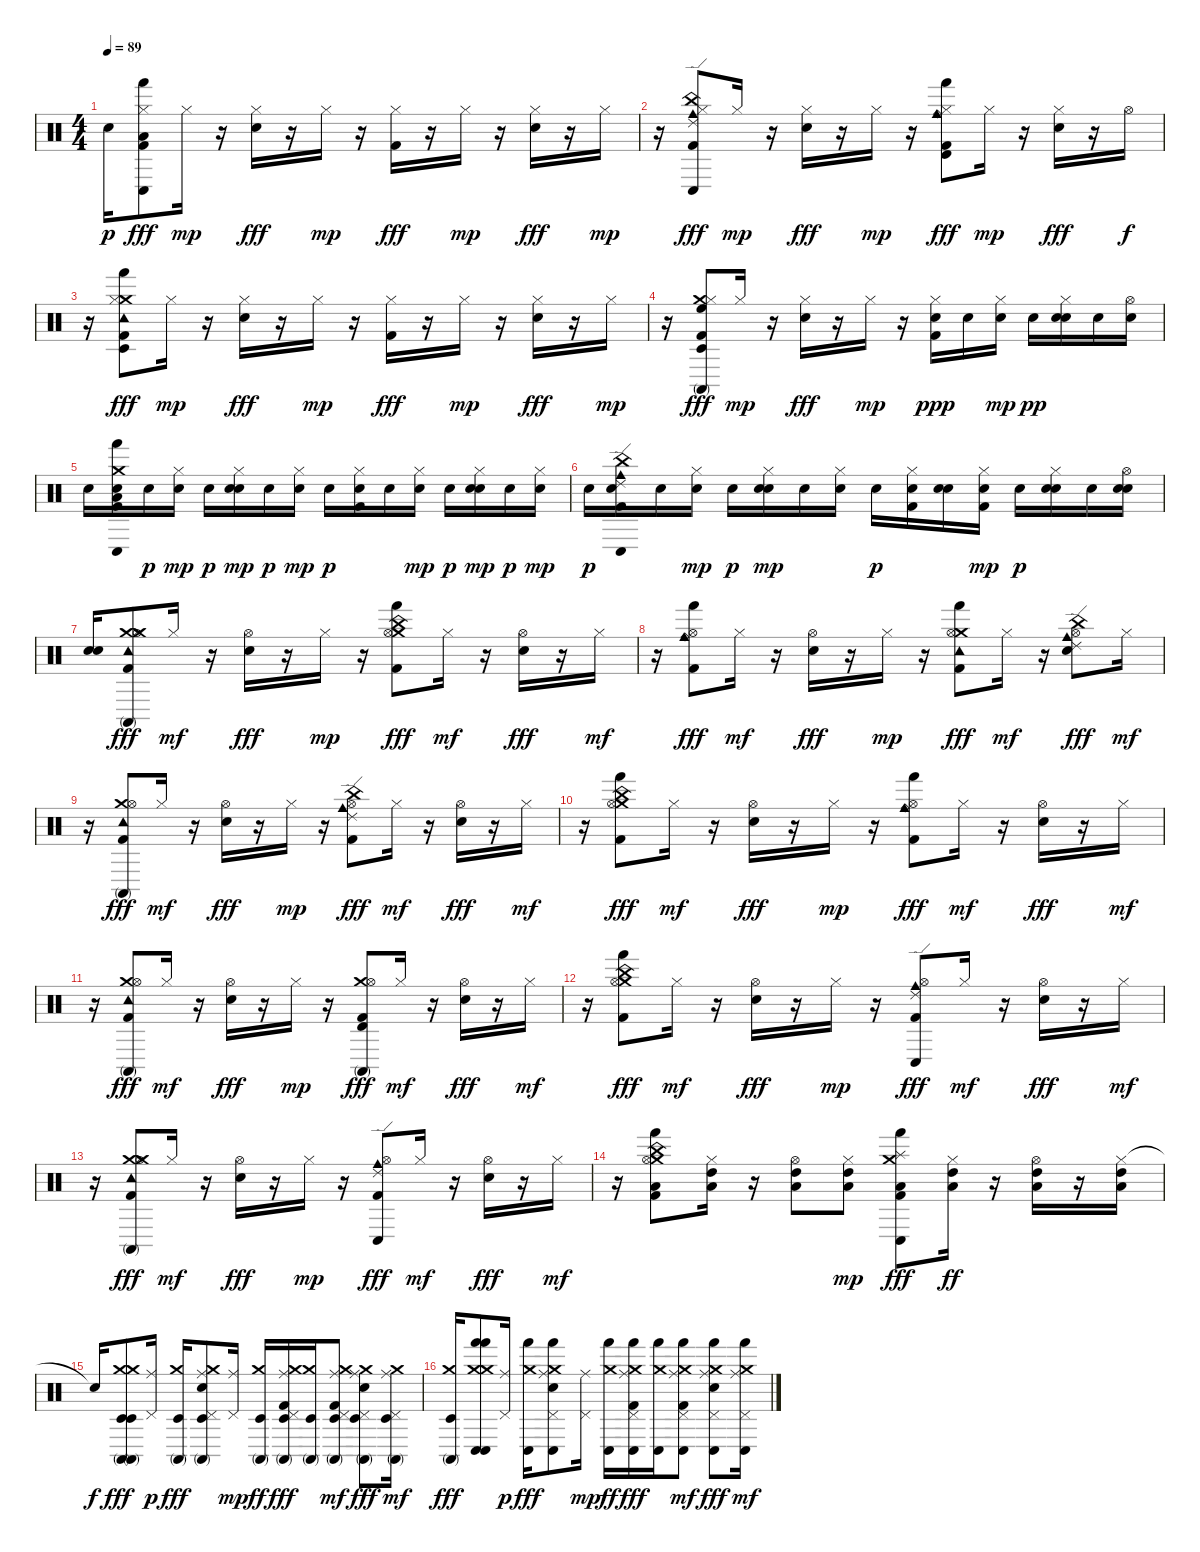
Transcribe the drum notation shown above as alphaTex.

\track "" {instrument percussion}
\staff {score}
\articulation defaults
\ts (4 4)
\tempo 89
\clef neutral
\ks c "Electric Snare (hit)".16{dy p}
("Low Tom (hit)" "Hand (hit)" "Conga low (hit)" "Kick (hit) 2" "Hi-Hat (closed)").8{dy fff} "Hi-Hat (closed)".16{dy mp} r.16 ("Snare (hit) 2" "Hi-Hat (closed)").16{dy fff} r.16 "Hi-Hat (closed)".16{dy mp} r.16 ("Kick (hit) 2" "Hi-Hat (closed)").16{dy fff} r.16 "Hi-Hat (closed)".16{dy mp} r.16 ("Snare (hit) 2" "Hi-Hat (closed)").16{dy fff} r.16 "Hi-Hat (closed)".16{dy mp} |
r.16 ("China (hit)" "Cowbell medium (hit)" "Ride (edge) 2" "Conga low (hit)" "Kick (hit) 2" "Hi-Hat (closed)").8{dy fff} "Hi-Hat (closed)".16{dy mp} r.16 ("Snare (hit) 2" "Hi-Hat (closed)").16{dy fff} r.16 "Hi-Hat (closed)".16{dy mp} r.16 ("Ride (bell)" "Cowbell medium (hit)" "Hand (hit)" "Timbale high (hit)" "Kick (hit) 2" "Hi-Hat (closed)").8{dy fff} "Hi-Hat (closed)".16{dy mp} r.16 ("Snare (hit) 2" "Hi-Hat (closed)").16{dy fff} r.16 "Hi-Hat (open)".16{dy f} |
r.16 ("Tambourine (hit)" "Crash medium (hit)" "Hand (hit)" "Timbale low (hit)" "Kick (hit) 2" "Hi-Hat (closed)").8{dy fff} "Hi-Hat (closed)".16{dy mp} r.16 ("Snare (hit) 2" "Hi-Hat (closed)").16{dy fff} r.16 "Hi-Hat (closed)".16{dy mp} r.16 ("Kick (hit) 2" "Hi-Hat (closed)").16{dy fff} r.16 "Hi-Hat (closed)".16{dy mp} r.16 ("Snare (hit) 2" "Hi-Hat (closed)").16{dy fff} r.16 "Hi-Hat (closed)".16{dy mp} |
r.16 ("High Floor Tom (hit)" "Crash medium (hit)" "Conga high (mute)" "Timbale low (hit)" "Kick (hit) 2" "Hi-Hat (closed)").8{dy fff} "Hi-Hat (closed)".16{dy mp} r.16 ("Snare (hit) 2" "Hi-Hat (closed)").16{dy fff} r.16 "Hi-Hat (closed)".16{dy mp} r.16 ("Kick (hit) 2" "Electric Snare (hit)" "Hi-Hat (closed)").16{dy ppp} "Electric Snare (hit)".16 ("Electric Snare (hit)" "Hi-Hat (closed)").16{dy mp} "Electric Snare (hit)".16{dy pp} ("Snare (hit) 2" "Electric Snare (hit)" "Hi-Hat (closed)").16 "Electric Snare (hit)".16 ("Electric Snare (hit)" "Hi-Hat (open)").16 |
"Electric Snare (hit)".16 ("Low Tom (hit)" "Crash medium (hit)" "Hand (hit)" "Conga low (hit)" "Kick (hit) 2" "Electric Snare (hit)").16 "Electric Snare (hit)".16{dy p} ("Electric Snare (hit)" "Hi-Hat (closed)").16{dy mp} "Electric Snare (hit)".16{dy p} ("Snare (hit) 2" "Electric Snare (hit)" "Hi-Hat (closed)").16{dy mp} "Electric Snare (hit)".16{dy p} ("Electric Snare (hit)" "Hi-Hat (closed)").16{dy mp} "Electric Snare (hit)".16{dy p} ("Kick (hit) 2" "Electric Snare (hit)" "Hi-Hat (closed)").16 "Electric Snare (hit)".16 ("Electric Snare (hit)" "Hi-Hat (closed)").16{dy mp} "Electric Snare (hit)".16{dy p} ("Snare (hit) 2" "Electric Snare (hit)" "Hi-Hat (closed)").16{dy mp} "Electric Snare (hit)".16{dy p} ("Electric Snare (hit)" "Hi-Hat (closed)").16{dy mp} |
"Electric Snare (hit)".16{dy p} ("China (hit)" "Cowbell medium (hit)" "Ride (edge) 2" "Conga low (hit)" "Kick (hit) 2" "Electric Snare (hit)").16 "Electric Snare (hit)".16 ("Electric Snare (hit)" "Hi-Hat (closed)").16{dy mp} "Electric Snare (hit)".16{dy p} ("Snare (hit) 2" "Electric Snare (hit)" "Hi-Hat (closed)").16{dy mp} "Electric Snare (hit)".16 ("Electric Snare (hit)" "Hi-Hat (closed)").16 "Electric Snare (hit)".16{dy p} ("Kick (hit) 2" "Electric Snare (hit)" "Hi-Hat (closed)").16 ("Snare (hit) 2" "Electric Snare (hit)").16 ("Kick (hit) 2" "Electric Snare (hit)" "Hi-Hat (closed)").16{dy mp} "Electric Snare (hit)".16{dy p} ("Snare (hit) 2" "Electric Snare (hit)" "Hi-Hat (closed)").16 "Electric Snare (hit)".16 ("Snare (hit) 2" "Electric Snare (hit)" "Hi-Hat (open)").16 |
("Snare (hit) 2" "Electric Snare (hit)").16 ("Tambourine (hit)" "Crash medium (hit)" "Conga high (mute)" "Kick (hit) 2" "Hi-Hat (open)" "Crash medium (hit)").8{dy fff} "Hi-Hat (closed)".16{dy mf} r.16 ("Snare (hit) 2" "Hi-Hat (open)").16{dy fff} r.16 "Hi-Hat (closed)".16{dy mp} r.16 ("China (hit)" "Crash medium (hit)" "Hand (hit)" "Kick (hit) 2" "Hi-Hat (open)").8{dy fff} "Hi-Hat (closed)".16{dy mf} r.16 ("Snare (hit) 2" "Hi-Hat (open)").16{dy fff} r.16 "Hi-Hat (closed)".16{dy mf} |
r.16 ("Ride (bell)" "Cowbell medium (hit)" "Hand (hit)" "Kick (hit) 2" "Hi-Hat (open)").8{dy fff} "Hi-Hat (closed)".16{dy mf} r.16 ("Snare (hit) 2" "Hi-Hat (open)").16{dy fff} r.16 "Hi-Hat (closed)".16{dy mp} r.16 ("Tambourine (hit)" "Crash medium (hit)" "Hand (hit)" "Kick (hit) 2" "Hi-Hat (open)").8{dy fff} "Hi-Hat (closed)".16{dy mf} r.16 ("China (hit)" "Cowbell medium (hit)" "Ride (edge) 2" "Snare (hit) 2" "Hi-Hat (open)").8{dy fff} "Hi-Hat (closed)".16{dy mf} |
r.16 ("Tambourine (hit)" "Crash medium (hit)" "Conga high (mute)" "Kick (hit) 2" "Hi-Hat (open)").8{dy fff} "Hi-Hat (closed)".16{dy mf} r.16 ("Snare (hit) 2" "Hi-Hat (open)").16{dy fff} r.16 "Hi-Hat (closed)".16{dy mp} r.16 ("China (hit)" "Cowbell medium (hit)" "Ride (edge) 2" "Kick (hit) 2" "Hi-Hat (open)").8{dy fff} "Hi-Hat (closed)".16{dy mf} r.16 ("Snare (hit) 2" "Hi-Hat (open)").16{dy fff} r.16 "Hi-Hat (closed)".16{dy mf} |
r.16 ("China (hit)" "Crash medium (hit)" "Hand (hit)" "Kick (hit) 2" "Hi-Hat (open)").8{dy fff} "Hi-Hat (closed)".16{dy mf} r.16 ("Snare (hit) 2" "Hi-Hat (open)").16{dy fff} r.16 "Hi-Hat (closed)".16{dy mp} r.16 ("Ride (bell)" "Cowbell medium (hit)" "Hand (hit)" "Kick (hit) 2" "Hi-Hat (open)").8{dy fff} "Hi-Hat (closed)".16{dy mf} r.16 ("Snare (hit) 2" "Hi-Hat (open)").16{dy fff} r.16 "Hi-Hat (closed)".16{dy mf} |
r.16 ("Tambourine (hit)" "Crash medium (hit)" "Conga high (mute)" "Kick (hit) 2" "Hi-Hat (open)").8{dy fff} "Hi-Hat (closed)".16{dy mf} r.16 ("Snare (hit) 2" "Hi-Hat (open)").16{dy fff} r.16 "Hi-Hat (closed)".16{dy mp} r.16 ("Crash medium (hit)" "Conga high (mute)" "Timbale high (hit)" "Kick (hit) 2" "Hi-Hat (open)").8{dy fff} "Hi-Hat (closed)".16{dy mf} r.16 ("Snare (hit) 2" "Hi-Hat (open)").16{dy fff} r.16 "Hi-Hat (closed)".16{dy mf} |
r.16 ("China (hit)" "Crash medium (hit)" "Hand (hit)" "Kick (hit) 2" "Hi-Hat (open)").8{dy fff} "Hi-Hat (closed)".16{dy mf} r.16 ("Snare (hit) 2" "Hi-Hat (open)").16{dy fff} r.16 "Hi-Hat (closed)".16{dy mp} r.16 ("Cowbell medium (hit)" "Ride (edge) 2" "Conga low (hit)" "Kick (hit) 2" "Hi-Hat (open)").8{dy fff} "Hi-Hat (closed)".16{dy mf} r.16 ("Snare (hit) 2" "Hi-Hat (open)").16{dy fff} r.16 "Hi-Hat (closed)".16{dy mf} |
r.16 ("Tambourine (hit)" "Crash medium (hit)" "Conga high (mute)" "Kick (hit) 2" "Hi-Hat (open)" "Crash medium (hit)").8{dy fff} "Hi-Hat (closed)".16{dy mf} r.16 ("Snare (hit) 2" "Hi-Hat (open)").16{dy fff} r.16 "Hi-Hat (closed)".16{dy mp} r.16 ("Cowbell medium (hit)" "Ride (edge) 2" "Conga low (hit)" "Kick (hit) 2" "Hi-Hat (open)").8{dy fff} "Hi-Hat (closed)".16{dy mf} r.16 ("Snare (hit) 2" "Hi-Hat (open)").16{dy fff} r.16 "Hi-Hat (closed)".16{dy mf} |
r.16 ("China (hit)" "Crash medium (hit)" "Hand (hit)" "Kick (hit) 2" "Low Tom (hit)" "Hi-Hat (open)").8 ("Hi-Hat (closed)" "Low Tom (hit)" "High Tom (hit)").16 r.16 ("Low Tom (hit)" "Hi-Hat (open)" "High Tom (hit)").8 ("Hi-Hat (closed)" "Low Tom (hit)" "High Tom (hit)").8{dy mp} ("Splash (hit)" "Crash medium (hit)" "Hand (hit)" "Conga low (hit)" "Kick (hit) 2" "Low Tom (hit)").8{dy fff} ("Hi-Hat (closed)" "Low Tom (hit)" "High Tom (hit)").16{dy ff} r.16 ("Low Tom (hit)" "Hi-Hat (open)" "High Tom (hit)").16 r.16 ("Hi-Hat (closed)" "Low Tom (hit)" "High Tom (hit)").16 |
"Snare (hit)"{t}.16{dy f} ("Crash medium (hit)" "Conga high (mute)" "Timbale low (hit)" "Crash medium (hit)" "Conga high (mute)" "Timbale low (hit)").8{dy fff} ("Pedal Hi-Hat (hit)" "Ride (middle)").16{dy p} ("Crash medium (hit)" "Conga high (mute)" "Timbale low (hit)").16{dy fff} ("Crash medium (hit)" "Conga high (mute)" "Timbale low (hit)" "Snare (hit) 2" "Pedal Hi-Hat (hit)" "Ride (middle)").8 ("Pedal Hi-Hat (hit)" "Ride (middle)").16{dy mp} ("Crash medium (hit)" "Conga high (mute)" "Timbale low (hit)").16{dy ff} ("Crash medium (hit)" "Conga high (mute)" "Timbale low (hit)" "Kick (hit) 2" "Pedal Hi-Hat (hit)" "Ride (middle)").16{dy fff} ("Crash medium (hit)" "Conga high (mute)" "Timbale low (hit)").16 ("Crash medium (hit)" "Conga high (mute)" "Timbale low (hit)" "Kick (hit) 2" "Pedal Hi-Hat (hit)" "Ride (middle)").8{dy mf} ("Crash medium (hit)" "Conga high (mute)" "Timbale low (hit)" "Snare (hit) 2" "Pedal Hi-Hat (hit)" "Ride (middle)").8{dy fff} ("Crash medium (hit)" "Conga high (mute)" "Timbale low (hit)" "Pedal Hi-Hat (hit)" "Ride (middle)").16{dy mf} |
("Crash medium (hit)" "Conga high (mute)" "Timbale low (hit)").16{dy fff} ("Crash medium (hit)" "Hand (hit)" "Conga low (hit)" "Crash medium (hit)" "Hand (hit)" "Conga low (hit)").8 ("Pedal Hi-Hat (hit)" "Ride (middle)").16{dy p} ("Crash medium (hit)" "Hand (hit)" "Conga low (hit)").16{dy fff} ("Crash medium (hit)" "Hand (hit)" "Conga low (hit)" "Snare (hit) 2" "Pedal Hi-Hat (hit)" "Ride (middle)").8 ("Pedal Hi-Hat (hit)" "Ride (middle)").16{dy mp} ("Crash medium (hit)" "Hand (hit)" "Conga low (hit)").16{dy ff} ("Crash medium (hit)" "Hand (hit)" "Conga low (hit)" "Kick (hit) 2" "Pedal Hi-Hat (hit)" "Ride (middle)").16{dy fff} ("Crash medium (hit)" "Hand (hit)" "Conga low (hit)").16 ("Crash medium (hit)" "Hand (hit)" "Conga low (hit)" "Kick (hit) 2" "Pedal Hi-Hat (hit)" "Ride (middle)").8{dy mf} ("Crash medium (hit)" "Hand (hit)" "Conga low (hit)" "Snare (hit) 2" "Pedal Hi-Hat (hit)" "Ride (middle)").8{dy fff} ("Crash medium (hit)" "Hand (hit)" "Conga low (hit)" "Pedal Hi-Hat (hit)" "Ride (middle)").16{dy mf}
